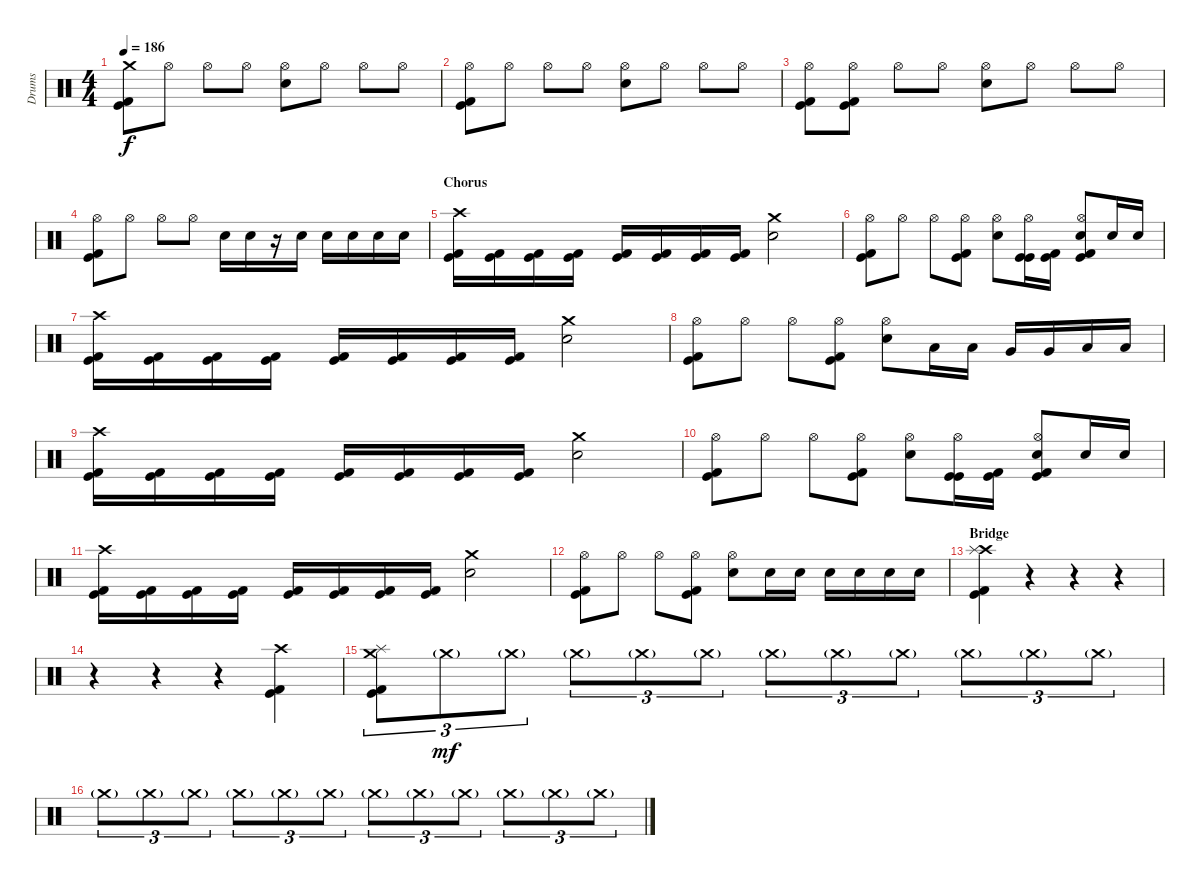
\track ("Drums" "Drums") {instrument percussion}
\staff {score}
\articulation defaults
\ts (4 4)
\tempo 186
\clef neutral
\ks c
("Crash medium (hit)" "Kick (hit)" "Kick (hit) 2").8{dy f} "Hi-Hat (open)".8 "Hi-Hat (open)".8 "Hi-Hat (open)".8 ("Hi-Hat (open)" "Electric Snare (hit)").8 "Hi-Hat (open)".8 "Hi-Hat (open)".8 "Hi-Hat (open)".8 |
("Hi-Hat (open)" "Kick (hit)" "Kick (hit) 2").8 "Hi-Hat (open)".8 "Hi-Hat (open)".8 "Hi-Hat (open)".8 ("Hi-Hat (open)" "Electric Snare (hit)").8 "Hi-Hat (open)".8 "Hi-Hat (open)".8 "Hi-Hat (open)".8 |
("Hi-Hat (open)" "Kick (hit)" "Kick (hit) 2").8 ("Hi-Hat (open)" "Kick (hit)" "Kick (hit) 2").8 "Hi-Hat (open)".8 "Hi-Hat (open)".8 ("Hi-Hat (open)" "Electric Snare (hit)").8 "Hi-Hat (open)".8 "Hi-Hat (open)".8 "Hi-Hat (open)".8 |
("Hi-Hat (open)" "Kick (hit)" "Kick (hit) 2").8 "Hi-Hat (open)".8 "Hi-Hat (open)".8 "Hi-Hat (open)".8 "Electric Snare (hit)".16 "Electric Snare (hit)".16 r.16 "Electric Snare (hit)".16 "Electric Snare (hit)".16 "Electric Snare (hit)".16 "Electric Snare (hit)".16 "Electric Snare (hit)".16 |
\section ("" "Chorus")
("Crash high (hit)" "Kick (hit)" "Kick (hit) 2").16 ("Kick (hit)" "Kick (hit) 2").16 ("Kick (hit)" "Kick (hit) 2").16 ("Kick (hit)" "Kick (hit) 2").16 ("Kick (hit)" "Kick (hit) 2").16 ("Kick (hit)" "Kick (hit) 2").16 ("Kick (hit)" "Kick (hit) 2").16 ("Kick (hit)" "Kick (hit) 2").16 ("Crash medium (hit)" "Electric Snare (hit)").2 |
("Hi-Hat (open)" "Kick (hit)" "Kick (hit) 2").8 "Hi-Hat (open)".8 "Hi-Hat (open)".8 ("Hi-Hat (open)" "Kick (hit)" "Kick (hit) 2").8 ("Hi-Hat (open)" "Electric Snare (hit)").8 ("Hi-Hat (open)" "Kick (hit)" "Kick (hit)").16 ("Kick (hit)" "Kick (hit) 2").16 ("Hi-Hat (open)" "Electric Snare (hit)" "Kick (hit)" "Kick (hit) 2").8 "Electric Snare (hit)".16 "Electric Snare (hit)".16 |
("Crash high (hit)" "Kick (hit)" "Kick (hit) 2").16 ("Kick (hit)" "Kick (hit) 2").16 ("Kick (hit)" "Kick (hit) 2").16 ("Kick (hit)" "Kick (hit) 2").16 ("Kick (hit)" "Kick (hit) 2").16 ("Kick (hit)" "Kick (hit) 2").16 ("Kick (hit)" "Kick (hit) 2").16 ("Kick (hit)" "Kick (hit) 2").16 ("Crash medium (hit)" "Electric Snare (hit)").2 |
("Hi-Hat (open)" "Kick (hit)" "Kick (hit) 2").8 "Hi-Hat (open)".8 "Hi-Hat (open)".8 ("Hi-Hat (open)" "Kick (hit)" "Kick (hit) 2").8 ("Hi-Hat (open)" "Electric Snare (hit)").8 "Low Tom (hit)".16 "Low Tom (hit)".16 "Very Low Tom (hit)".16 "Very Low Tom (hit)".16 "Low Floor Tom (hit)".16 "Low Floor Tom (hit)".16 |
("Crash high (hit)" "Kick (hit)" "Kick (hit) 2").16 ("Kick (hit)" "Kick (hit) 2").16 ("Kick (hit)" "Kick (hit) 2").16 ("Kick (hit)" "Kick (hit) 2").16 ("Kick (hit)" "Kick (hit) 2").16 ("Kick (hit)" "Kick (hit) 2").16 ("Kick (hit)" "Kick (hit) 2").16 ("Kick (hit)" "Kick (hit) 2").16 ("Crash medium (hit)" "Electric Snare (hit)").2 |
("Hi-Hat (open)" "Kick (hit)" "Kick (hit) 2").8 "Hi-Hat (open)".8 "Hi-Hat (open)".8 ("Hi-Hat (open)" "Kick (hit)" "Kick (hit) 2").8 ("Hi-Hat (open)" "Electric Snare (hit)").8 ("Hi-Hat (open)" "Kick (hit)" "Kick (hit)").16 ("Kick (hit)" "Kick (hit) 2").16 ("Hi-Hat (open)" "Electric Snare (hit)" "Kick (hit)" "Kick (hit) 2").8 "Electric Snare (hit)".16 "Electric Snare (hit)".16 |
("Crash high (hit)" "Kick (hit)" "Kick (hit) 2").16 ("Kick (hit)" "Kick (hit) 2").16 ("Kick (hit)" "Kick (hit) 2").16 ("Kick (hit)" "Kick (hit) 2").16 ("Kick (hit)" "Kick (hit) 2").16 ("Kick (hit)" "Kick (hit) 2").16 ("Kick (hit)" "Kick (hit) 2").16 ("Kick (hit)" "Kick (hit) 2").16 ("Crash medium (hit)" "Electric Snare (hit)").2 |
("Hi-Hat (open)" "Kick (hit)" "Kick (hit) 2").8 "Hi-Hat (open)".8 "Hi-Hat (open)".8 ("Hi-Hat (open)" "Kick (hit)" "Kick (hit) 2").8 ("Hi-Hat (open)" "Electric Snare (hit)").8 "Electric Snare (hit)".16 "Electric Snare (hit)".16 "Electric Snare (hit)".16 "Electric Snare (hit)".16 "Electric Snare (hit)".16 "Electric Snare (hit)".16 |
\section ("" "Bridge")
("Crash high (hit)" "Splash (hit)" "Kick (hit)" "Kick (hit) 2").4 r.4 r.4 r.4 |
r.4 r.4 r.4 ("Crash high (hit)" "Kick (hit)" "Kick (hit) 2").4 |
("Crash medium (hit)" "Splash (hit)" "Kick (hit)" "Kick (hit) 2").8{tu (3 2)} "Crash medium (hit)"{g}.8{tu (3 2) dy mf} "Crash medium (hit)"{g}.8{tu (3 2)} "Crash medium (hit)"{g}.8{tu (3 2)} "Crash medium (hit)"{g}.8{tu (3 2)} "Crash medium (hit)"{g}.8{tu (3 2)} "Crash medium (hit)"{g}.8{tu (3 2)} "Crash medium (hit)"{g}.8{tu (3 2)} "Crash medium (hit)"{g}.8{tu (3 2)} "Crash medium (hit)"{g}.8{tu (3 2)} "Crash medium (hit)"{g}.8{tu (3 2)} "Crash medium (hit)"{g}.8{tu (3 2)} |
"Crash medium (hit)"{g}.8{tu (3 2)} "Crash medium (hit)"{g}.8{tu (3 2)} "Crash medium (hit)"{g}.8{tu (3 2)} "Crash medium (hit)"{g}.8{tu (3 2)} "Crash medium (hit)"{g}.8{tu (3 2)} "Crash medium (hit)"{g}.8{tu (3 2)} "Crash medium (hit)"{g}.8{tu (3 2)} "Crash medium (hit)"{g}.8{tu (3 2)} "Crash medium (hit)"{g}.8{tu (3 2)} "Crash medium (hit)"{g}.8{tu (3 2)} "Crash medium (hit)"{g}.8{tu (3 2)} "Crash medium (hit)"{g}.8{tu (3 2)}
